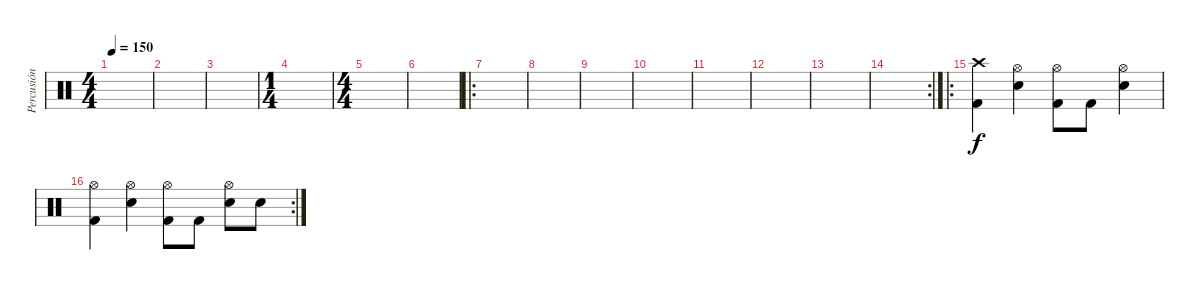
\track ("Percusión" "Percusión") {instrument percussion}
\staff {score}
\articulation defaults
\ts (4 4)
\tempo 150
\clef neutral
\ks c
|
|
|
\ts (1 4)
|
\ts (4 4)
|
|
\ro
|
|
|
|
|
|
|
\rc 2
|
\ro
("Crash high (hit)" "Kick (hit) 2").4 ("Hi-Hat (open)" "Electric Snare (hit)").4 ("Hi-Hat (open)" "Kick (hit) 2").8 "Kick (hit) 2".8 ("Hi-Hat (open)" "Electric Snare (hit)").4 |
\rc 2
("Hi-Hat (open)" "Kick (hit) 2").4 ("Hi-Hat (open)" "Electric Snare (hit)").4 ("Hi-Hat (open)" "Kick (hit) 2").8 "Kick (hit) 2".8 ("Hi-Hat (open)" "Electric Snare (hit)").8 "Electric Snare (hit)".8
